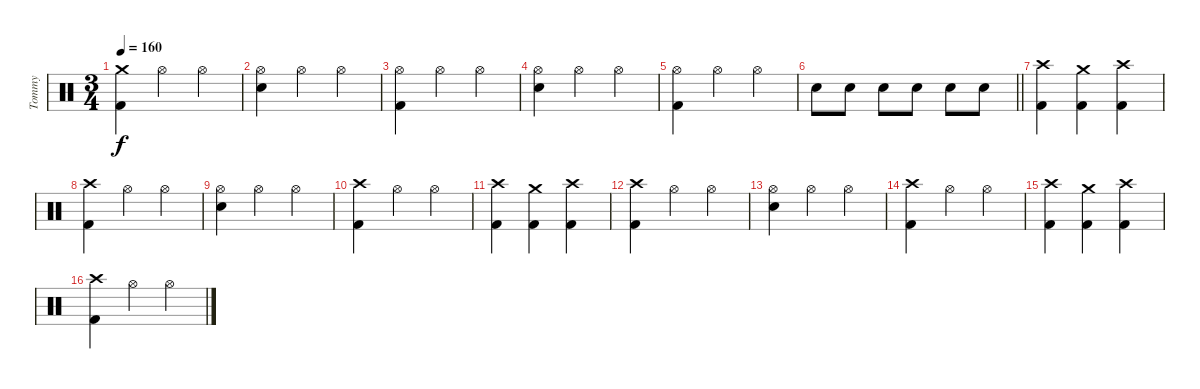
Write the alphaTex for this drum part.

\track ("Tommy" "Tommy") {instrument percussion}
\staff {score}
\articulation defaults
\ts (3 4)
\tempo 160
\clef neutral
\ks c
("Crash medium (hit)" "Kick (hit) 2").4{dy f} "Hi-Hat (open)".4 "Hi-Hat (open)".4 |
("Hi-Hat (open)" "Electric Snare (hit)").4 "Hi-Hat (open)".4 "Hi-Hat (open)".4 |
("Hi-Hat (open)" "Kick (hit) 2").4 "Hi-Hat (open)".4 "Hi-Hat (open)".4 |
("Hi-Hat (open)" "Electric Snare (hit)").4 "Hi-Hat (open)".4 "Hi-Hat (open)".4 |
("Hi-Hat (open)" "Kick (hit) 2").4 "Hi-Hat (open)".4 "Hi-Hat (open)".4 |
\barLineRight lightlight "Electric Snare (hit)".8 "Electric Snare (hit)".8 "Electric Snare (hit)".8 "Electric Snare (hit)".8 "Electric Snare (hit)".8 "Electric Snare (hit)".8
|
\section ("" "")
("Crash high (hit)" "Kick (hit) 2").4 ("Crash medium (hit)" "Kick (hit) 2").4 ("Crash high (hit)" "Kick (hit) 2").4 |
("Crash high (hit)" "Kick (hit) 2").4 "Hi-Hat (open)".4 "Hi-Hat (open)".4 |
("Hi-Hat (open)" "Electric Snare (hit)").4 "Hi-Hat (open)".4 "Hi-Hat (open)".4 |
("Crash high (hit)" "Kick (hit) 2").4 "Hi-Hat (open)".4 "Hi-Hat (open)".4 |
("Crash high (hit)" "Kick (hit) 2").4 ("Crash medium (hit)" "Kick (hit) 2").4 ("Crash high (hit)" "Kick (hit) 2").4 |
("Crash high (hit)" "Kick (hit) 2").4 "Hi-Hat (open)".4 "Hi-Hat (open)".4 |
("Hi-Hat (open)" "Electric Snare (hit)").4 "Hi-Hat (open)".4 "Hi-Hat (open)".4 |
("Crash high (hit)" "Kick (hit) 2").4 "Hi-Hat (open)".4 "Hi-Hat (open)".4 |
("Crash high (hit)" "Kick (hit) 2").4 ("Crash medium (hit)" "Kick (hit) 2").4 ("Crash high (hit)" "Kick (hit) 2").4 |
("Crash high (hit)" "Kick (hit) 2").4 "Hi-Hat (open)".4 "Hi-Hat (open)".4
